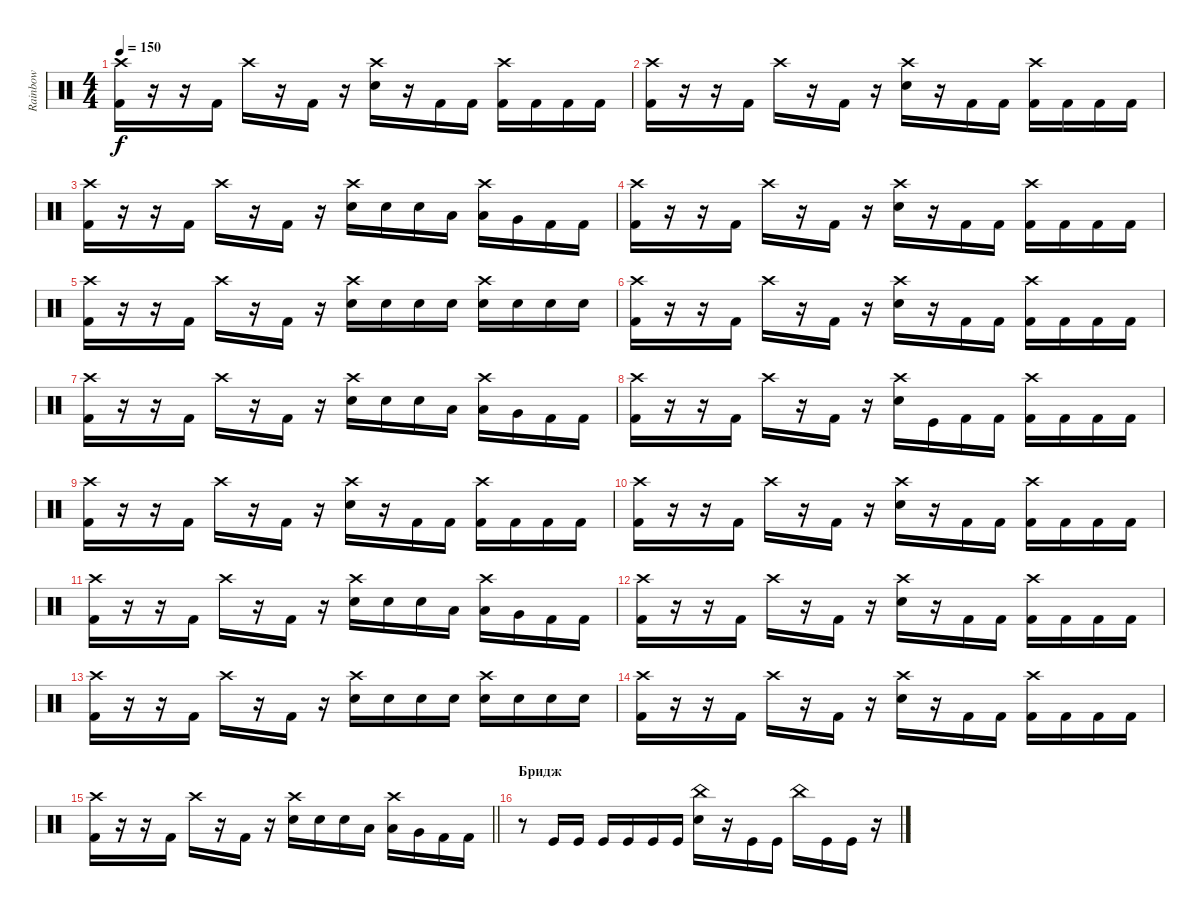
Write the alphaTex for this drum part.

\track ("Rainbow" "Rainbow") {instrument percussion}
\staff {score}
\articulation defaults
\ts (4 4)
\tempo 150
\clef neutral
\ks c
("Crash high (hit)" "Kick (hit) 2").16{dy f} r.16 r.16 "Kick (hit) 2".16 "Crash high (hit)".16 r.16 "Kick (hit) 2".16 r.16 ("Crash high (hit)" "Electric Snare (hit)").16 r.16 "Kick (hit) 2".16 "Kick (hit) 2".16 ("Crash high (hit)" "Kick (hit) 2").16 "Kick (hit) 2".16 "Kick (hit) 2".16 "Kick (hit) 2".16 |
("Crash high (hit)" "Kick (hit) 2").16 r.16 r.16 "Kick (hit) 2".16 "Crash high (hit)".16 r.16 "Kick (hit) 2".16 r.16 ("Crash high (hit)" "Electric Snare (hit)").16 r.16 "Kick (hit) 2".16 "Kick (hit) 2".16 ("Crash high (hit)" "Kick (hit) 2").16 "Kick (hit) 2".16 "Kick (hit) 2".16 "Kick (hit) 2".16 |
("Crash high (hit)" "Kick (hit) 2").16 r.16 r.16 "Kick (hit) 2".16 "Crash high (hit)".16 r.16 "Kick (hit) 2".16 r.16 ("Crash high (hit)" "Electric Snare (hit)").16 "Electric Snare (hit)".16 "Electric Snare (hit)".16 "Low Tom (hit)".16 ("Crash high (hit)" "Low Tom (hit)").16 "Very Low Tom (hit)".16 "Kick (hit) 2".16 "Kick (hit) 2".16 |
("Crash high (hit)" "Kick (hit) 2").16 r.16 r.16 "Kick (hit) 2".16 "Crash high (hit)".16 r.16 "Kick (hit) 2".16 r.16 ("Crash high (hit)" "Electric Snare (hit)").16 r.16 "Kick (hit) 2".16 "Kick (hit) 2".16 ("Crash high (hit)" "Kick (hit) 2").16 "Kick (hit) 2".16 "Kick (hit) 2".16 "Kick (hit) 2".16 |
("Crash high (hit)" "Kick (hit) 2").16 r.16 r.16 "Kick (hit) 2".16 "Crash high (hit)".16 r.16 "Kick (hit) 2".16 r.16 ("Crash high (hit)" "Electric Snare (hit)").16 "Electric Snare (hit)".16 "Electric Snare (hit)".16 "Electric Snare (hit)".16 ("Crash high (hit)" "Electric Snare (hit)").16 "Electric Snare (hit)".16 "Electric Snare (hit)".16 "Electric Snare (hit)".16 |
("Crash high (hit)" "Kick (hit) 2").16 r.16 r.16 "Kick (hit) 2".16 "Crash high (hit)".16 r.16 "Kick (hit) 2".16 r.16 ("Crash high (hit)" "Electric Snare (hit)").16 r.16 "Kick (hit) 2".16 "Kick (hit) 2".16 ("Crash high (hit)" "Kick (hit) 2").16 "Kick (hit) 2".16 "Kick (hit) 2".16 "Kick (hit) 2".16 |
("Crash high (hit)" "Kick (hit) 2").16 r.16 r.16 "Kick (hit) 2".16 "Crash high (hit)".16 r.16 "Kick (hit) 2".16 r.16 ("Crash high (hit)" "Electric Snare (hit)").16 "Electric Snare (hit)".16 "Electric Snare (hit)".16 "Low Tom (hit)".16 ("Crash high (hit)" "Low Tom (hit)").16 "Very Low Tom (hit)".16 "Kick (hit) 2".16 "Kick (hit) 2".16 |
("Crash high (hit)" "Kick (hit) 2").16 r.16 r.16 "Kick (hit) 2".16 "Crash high (hit)".16 r.16 "Kick (hit) 2".16 r.16 ("Crash high (hit)" "Electric Snare (hit)").16 "Kick (hit)".16 "Kick (hit) 2".16 "Kick (hit) 2".16 ("Crash high (hit)" "Kick (hit) 2").16 "Kick (hit) 2".16 "Kick (hit) 2".16 "Kick (hit) 2".16 |
("Crash high (hit)" "Kick (hit) 2").16 r.16 r.16 "Kick (hit) 2".16 "Crash high (hit)".16 r.16 "Kick (hit) 2".16 r.16 ("Crash high (hit)" "Electric Snare (hit)").16 r.16 "Kick (hit) 2".16 "Kick (hit) 2".16 ("Crash high (hit)" "Kick (hit) 2").16 "Kick (hit) 2".16 "Kick (hit) 2".16 "Kick (hit) 2".16 |
("Crash high (hit)" "Kick (hit) 2").16 r.16 r.16 "Kick (hit) 2".16 "Crash high (hit)".16 r.16 "Kick (hit) 2".16 r.16 ("Crash high (hit)" "Electric Snare (hit)").16 r.16 "Kick (hit) 2".16 "Kick (hit) 2".16 ("Crash high (hit)" "Kick (hit) 2").16 "Kick (hit) 2".16 "Kick (hit) 2".16 "Kick (hit) 2".16 |
("Crash high (hit)" "Kick (hit) 2").16 r.16 r.16 "Kick (hit) 2".16 "Crash high (hit)".16 r.16 "Kick (hit) 2".16 r.16 ("Crash high (hit)" "Electric Snare (hit)").16 "Electric Snare (hit)".16 "Electric Snare (hit)".16 "Low Tom (hit)".16 ("Crash high (hit)" "Low Tom (hit)").16 "Very Low Tom (hit)".16 "Kick (hit) 2".16 "Kick (hit) 2".16 |
("Crash high (hit)" "Kick (hit) 2").16 r.16 r.16 "Kick (hit) 2".16 "Crash high (hit)".16 r.16 "Kick (hit) 2".16 r.16 ("Crash high (hit)" "Electric Snare (hit)").16 r.16 "Kick (hit) 2".16 "Kick (hit) 2".16 ("Crash high (hit)" "Kick (hit) 2").16 "Kick (hit) 2".16 "Kick (hit) 2".16 "Kick (hit) 2".16 |
("Crash high (hit)" "Kick (hit) 2").16 r.16 r.16 "Kick (hit) 2".16 "Crash high (hit)".16 r.16 "Kick (hit) 2".16 r.16 ("Crash high (hit)" "Electric Snare (hit)").16 "Electric Snare (hit)".16 "Electric Snare (hit)".16 "Electric Snare (hit)".16 ("Crash high (hit)" "Electric Snare (hit)").16 "Electric Snare (hit)".16 "Electric Snare (hit)".16 "Electric Snare (hit)".16 |
("Crash high (hit)" "Kick (hit) 2").16 r.16 r.16 "Kick (hit) 2".16 "Crash high (hit)".16 r.16 "Kick (hit) 2".16 r.16 ("Crash high (hit)" "Electric Snare (hit)").16 r.16 "Kick (hit) 2".16 "Kick (hit) 2".16 ("Crash high (hit)" "Kick (hit) 2").16 "Kick (hit) 2".16 "Kick (hit) 2".16 "Kick (hit) 2".16 |
\barLineRight lightlight
("Crash high (hit)" "Kick (hit) 2").16 r.16 r.16 "Kick (hit) 2".16 "Crash high (hit)".16 r.16 "Kick (hit) 2".16 r.16 ("Crash high (hit)" "Electric Snare (hit)").16 "Electric Snare (hit)".16 "Electric Snare (hit)".16 "Low Tom (hit)".16 ("Crash high (hit)" "Low Tom (hit)").16 "Very Low Tom (hit)".16 "Kick (hit) 2".16 "Kick (hit) 2".16 |
\section ("" "Бридж")
r.8 "Kick (hit)".16 "Kick (hit)".16 "Kick (hit)".16 "Kick (hit)".16 "Kick (hit)".16 "Kick (hit)".16 ("China (hit)" "Electric Snare (hit)").16 r.16 "Kick (hit)".16 "Kick (hit)".16 "China (hit)".16 "Kick (hit)".16 "Kick (hit)".16 r.16
